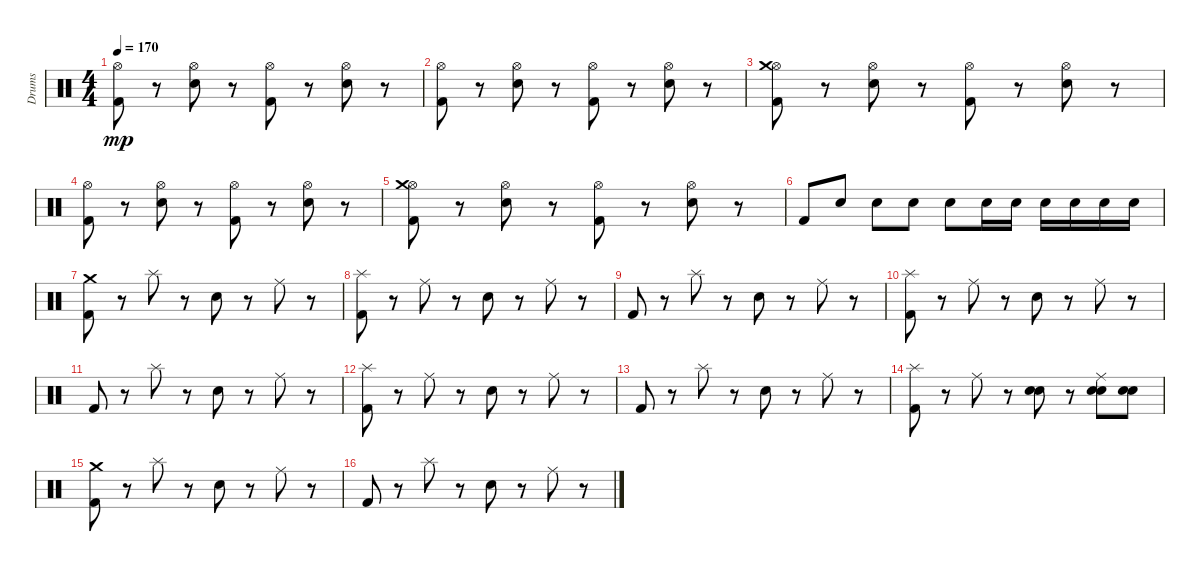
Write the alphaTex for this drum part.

\track ("Drums" "Drums") {instrument percussion}
\staff {score}
\articulation defaults
\ts (4 4)
\tempo 170
\clef neutral
\ks c
("Hi-Hat (open)" "Kick (hit) 2").8{dy mp} r.8 ("Electric Snare (hit)" "Hi-Hat (open)").8 r.8 ("Hi-Hat (open)" "Kick (hit) 2").8 r.8 ("Hi-Hat (open)" "Electric Snare (hit)").8 r.8 |
("Hi-Hat (open)" "Kick (hit) 2").8 r.8 ("Hi-Hat (open)" "Electric Snare (hit)").8 r.8 ("Kick (hit) 2" "Hi-Hat (open)").8 r.8 ("Electric Snare (hit)" "Hi-Hat (open)").8 r.8 |
("Hi-Hat (open)" "Kick (hit) 2" "Crash medium (hit)").8 r.8 ("Electric Snare (hit)" "Hi-Hat (open)").8 r.8 ("Hi-Hat (open)" "Kick (hit) 2").8 r.8 ("Hi-Hat (open)" "Electric Snare (hit)").8 r.8 |
("Hi-Hat (open)" "Kick (hit) 2").8 r.8 ("Electric Snare (hit)" "Hi-Hat (open)").8 r.8 ("Kick (hit) 2" "Hi-Hat (open)").8 r.8 ("Electric Snare (hit)" "Hi-Hat (open)").8 r.8 |
("Kick (hit) 2" "Hi-Hat (open)" "Crash medium (hit)").8 r.8 ("Electric Snare (hit)" "Hi-Hat (open)").8 r.8 ("Hi-Hat (open)" "Kick (hit) 2").8 r.8 ("Electric Snare (hit)" "Hi-Hat (open)").8 r.8 |
"Kick (hit) 2".8 "Electric Snare (hit)".8 "Electric Snare (hit)".8 "Electric Snare (hit)".8 "Electric Snare (hit)".8 "Electric Snare (hit)".16 "Electric Snare (hit)".16 "Electric Snare (hit)".16 "Electric Snare (hit)".16 "Electric Snare (hit)".16 "Electric Snare (hit)".16 |
("Kick (hit) 2" "Crash medium (hit)").8 r.8 "Splash (hit)".8 r.8 "Electric Snare (hit)".8 r.8 "Ride (middle)".8 r.8 |
("Kick (hit) 2" "Splash (hit)").8 r.8 "Ride (middle)".8 r.8 "Electric Snare (hit)".8 r.8 "Ride (middle)".8 r.8 |
"Kick (hit) 2".8 r.8 "Splash (hit)".8 r.8 "Electric Snare (hit)".8 r.8 "Ride (middle)".8 r.8 |
("Kick (hit) 2" "Splash (hit)").8 r.8 "Ride (middle)".8 r.8 "Electric Snare (hit)".8 r.8 "Ride (middle)".8 r.8 |
"Kick (hit) 2".8 r.8 "Splash (hit)".8 r.8 "Electric Snare (hit)".8 r.8 "Ride (middle)".8 r.8 |
("Splash (hit)" "Kick (hit) 2").8 r.8 "Ride (middle)".8 r.8 "Electric Snare (hit)".8 r.8 "Ride (middle)".8 r.8 |
"Kick (hit) 2".8 r.8 "Splash (hit)".8 r.8 "Electric Snare (hit)".8 r.8 "Ride (middle)".8 r.8 |
("Kick (hit) 2" "Splash (hit)").8 r.8 "Ride (middle)".8 r.8 ("Electric Snare (hit)" "Snare (hit) 2").8 r.8 ("Ride (middle)" "Snare (hit) 2" "Electric Snare (hit)").8 ("Snare (hit) 2" "Electric Snare (hit)").8 |
("Kick (hit) 2" "Crash medium (hit)").8 r.8 "Splash (hit)".8 r.8 "Electric Snare (hit)".8 r.8 "Ride (middle)".8 r.8 |
"Kick (hit) 2".8 r.8 "Splash (hit)".8 r.8 "Electric Snare (hit)".8 r.8 "Ride (middle)".8 r.8
